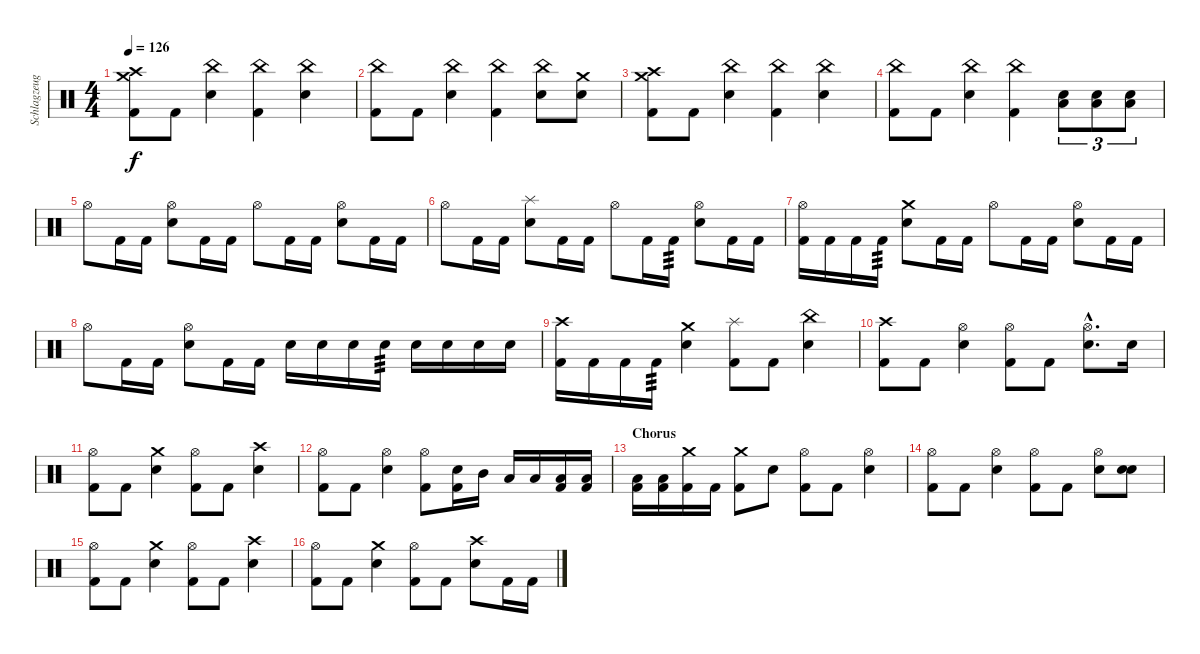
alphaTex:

\track ("Schlagzeug" "Schlagzeug") {instrument percussion}
\staff {score}
\articulation defaults
\ts (4 4)
\tempo 126
\clef neutral
\ks c
("Crash medium (hit)" "Crash high (hit)" "Kick (hit) 2").8{dy f} "Kick (hit) 2".8 ("China (hit)" "Snare (hit) 2").4 ("China (hit)" "Kick (hit) 2").4 ("China (hit)" "Snare (hit) 2").4 |
("China (hit)" "Kick (hit) 2").8 "Kick (hit) 2".8 ("China (hit)" "Snare (hit) 2").4 ("China (hit)" "Kick (hit) 2").4 ("China (hit)" "Snare (hit) 2").8 ("Crash medium (hit)" "Snare (hit) 2").8 |
("Crash medium (hit)" "Crash high (hit)" "Kick (hit) 2").8 "Kick (hit) 2".8 ("China (hit)" "Snare (hit) 2").4 ("China (hit)" "Kick (hit) 2").4 ("China (hit)" "Snare (hit) 2").4 |
("China (hit)" "Kick (hit) 2").8 "Kick (hit) 2".8 ("China (hit)" "Snare (hit) 2").4 ("China (hit)" "Kick (hit) 2").4 ("Snare (hit) 2" "Low Tom (hit)").8{tu (3 2)} ("Snare (hit) 2" "Low Tom (hit)").8{tu (3 2)} ("Snare (hit) 2" "Low Tom (hit)").8{tu (3 2)} |
"Hi-Hat (open)".8 "Kick (hit) 2".16 "Kick (hit) 2".16 ("Hi-Hat (open)" "Snare (hit) 2").8 "Kick (hit) 2".16 "Kick (hit) 2".16 "Hi-Hat (open)".8 "Kick (hit) 2".16 "Kick (hit) 2".16 ("Hi-Hat (open)" "Snare (hit) 2").8 "Kick (hit) 2".16 "Kick (hit) 2".16 |
"Hi-Hat (open)".8 "Kick (hit) 2".16 "Kick (hit) 2".16 ("Splash (hit)" "Snare (hit) 2").8 "Kick (hit) 2".16 "Kick (hit) 2".16 "Hi-Hat (open)".8 "Kick (hit) 2".16 "Kick (hit) 2".16{tp 3} ("Hi-Hat (open)" "Snare (hit) 2").8 "Kick (hit) 2".16 "Kick (hit) 2".16 |
("Hi-Hat (open)" "Kick (hit) 2").16 "Kick (hit) 2".16 "Kick (hit) 2".16 "Kick (hit) 2".16{tp 3} ("Crash medium (hit)" "Snare (hit) 2").8 "Kick (hit) 2".16 "Kick (hit) 2".16 "Hi-Hat (open)".8 "Kick (hit) 2".16 "Kick (hit) 2".16 ("Hi-Hat (open)" "Snare (hit) 2").8 "Kick (hit) 2".16 "Kick (hit) 2".16 |
"Hi-Hat (open)".8 "Kick (hit) 2".16 "Kick (hit) 2".16 ("Hi-Hat (open)" "Snare (hit) 2").8 "Kick (hit) 2".16 "Kick (hit) 2".16 "Snare (hit) 2".16 "Snare (hit) 2".16 "Snare (hit) 2".16 "Snare (hit) 2".16{tp 3} "Snare (hit) 2".16 "Snare (hit) 2".16 "Snare (hit) 2".16 "Snare (hit) 2".16 |
("Crash high (hit)" "Kick (hit) 2").16 "Kick (hit) 2".16 "Kick (hit) 2".16 "Kick (hit) 2".16{tp 3} ("Crash medium (hit)" "Snare (hit) 2").4 ("Splash (hit)" "Kick (hit) 2").8 "Kick (hit) 2".8 ("China (hit)" "Snare (hit) 2").4 |
("Crash high (hit)" "Kick (hit) 2").8 "Kick (hit) 2".8 ("Hi-Hat (open)" "Snare (hit) 2").4 ("Hi-Hat (open)" "Kick (hit) 2").8 "Kick (hit) 2".8 ("Hi-Hat (open)"{hac} "Snare (hit) 2"{hac}).8{d} "Snare (hit) 2".16 |
("Hi-Hat (open)" "Kick (hit) 2").8 "Kick (hit) 2".8 ("Crash medium (hit)" "Snare (hit) 2").4 ("Hi-Hat (open)" "Kick (hit) 2").8 "Kick (hit) 2".8 ("Crash high (hit)" "Snare (hit) 2").4 |
("Hi-Hat (open)" "Kick (hit) 2").8 "Kick (hit) 2".8 ("Hi-Hat (open)" "Snare (hit) 2").4 ("Hi-Hat (open)" "Kick (hit) 2").8 ("Snare (hit) 2" "Kick (hit) 2").16 "Mid Tom (hit)".16 "Low Tom (hit)".16 "Low Floor Tom (hit)".16 ("Low Floor Tom (hit)" "Kick (hit) 2").16 ("Low Floor Tom (hit)" "Kick (hit) 2").16 |
\section ("" "Chorus")
("Low Floor Tom (hit)" "Kick (hit) 2").16 ("Low Floor Tom (hit)" "Kick (hit) 2").16 ("Crash medium (hit)" "Kick (hit) 2").16 "Kick (hit) 2".16 ("Crash medium (hit)" "Kick (hit) 2").8 "Snare (hit) 2".8 ("Hi-Hat (open)" "Kick (hit) 2").8 "Kick (hit) 2".8 ("Hi-Hat (open)" "Snare (hit) 2").4 |
("Hi-Hat (open)" "Kick (hit) 2").8 "Kick (hit) 2".8 ("Hi-Hat (open)" "Snare (hit) 2").4 ("Hi-Hat (open)" "Kick (hit) 2").8 "Kick (hit) 2".8 ("Hi-Hat (open)" "Snare (hit) 2").8 ("Snare (hit) 2" "Snare (hit) 2").8 |
("Hi-Hat (open)" "Kick (hit) 2").8 "Kick (hit) 2".8 ("Crash medium (hit)" "Snare (hit) 2").4 ("Hi-Hat (open)" "Kick (hit) 2").8 "Kick (hit) 2".8 ("Crash high (hit)" "Snare (hit) 2").4 |
("Hi-Hat (open)" "Kick (hit) 2").8 "Kick (hit) 2".8 ("Crash medium (hit)" "Snare (hit) 2").4 ("Hi-Hat (open)" "Kick (hit) 2").8 "Kick (hit) 2".8 ("Crash high (hit)" "Snare (hit) 2").8 "Kick (hit) 2".16 "Kick (hit) 2".16
